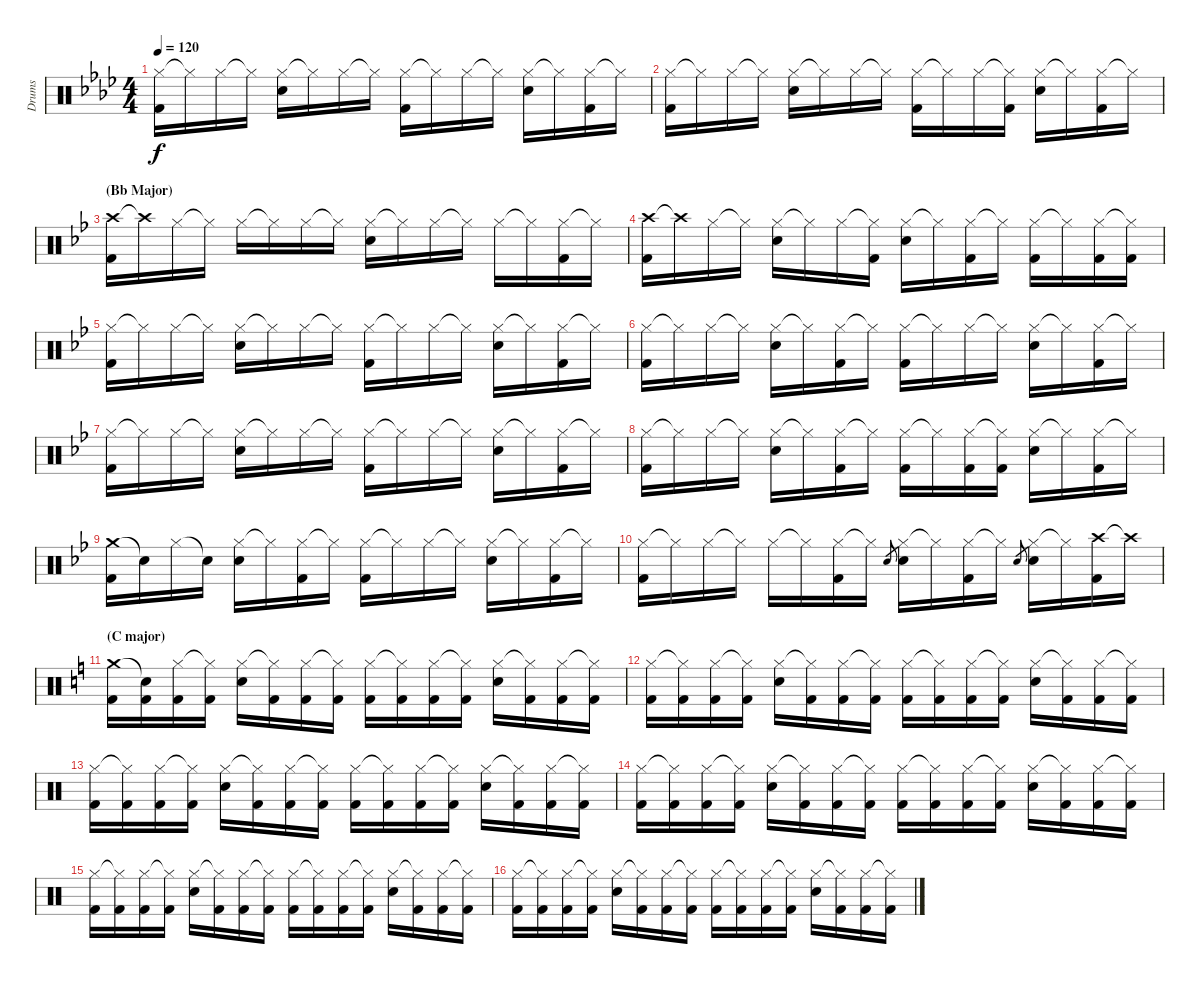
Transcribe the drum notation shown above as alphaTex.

\track ("Drums" "Drums") {instrument percussion}
\staff {score}
\articulation defaults
\ts (4 4)
\tempo 120
\clef neutral
\ks ab
("Hi-Hat (closed)" "Kick (hit) 2").16{dy f} "Hi-Hat (closed)"{t}.16 "Hi-Hat (closed)".16 "Hi-Hat (closed)"{t}.16 ("Hi-Hat (closed)" "Snare (hit) 2").16 "Hi-Hat (closed)"{t}.16 "Hi-Hat (closed)".16 "Hi-Hat (closed)"{t}.16 ("Hi-Hat (closed)" "Kick (hit) 2").16 "Hi-Hat (closed)"{t}.16 "Hi-Hat (closed)".16 "Hi-Hat (closed)"{t}.16 ("Hi-Hat (closed)" "Snare (hit) 2").16 "Hi-Hat (closed)"{t}.16 ("Hi-Hat (closed)" "Kick (hit) 2").16 "Hi-Hat (closed)"{t}.16 |
("Hi-Hat (closed)" "Kick (hit) 2").16 "Hi-Hat (closed)"{t}.16 "Hi-Hat (closed)".16 "Hi-Hat (closed)"{t}.16 ("Hi-Hat (closed)" "Snare (hit) 2").16 "Hi-Hat (closed)"{t}.16 "Hi-Hat (closed)".16 "Hi-Hat (closed)"{t}.16 ("Hi-Hat (closed)" "Kick (hit) 2").16 "Hi-Hat (closed)"{t}.16 "Hi-Hat (closed)".16 ("Hi-Hat (closed)"{t} "Kick (hit) 2").16 ("Hi-Hat (closed)" "Snare (hit) 2").16 "Hi-Hat (closed)"{t}.16 ("Hi-Hat (closed)" "Kick (hit) 2").16 "Hi-Hat (closed)"{t}.16 |
\section ("" "(Bb Major)")
\ks bb
("Crash high (hit)" "Kick (hit) 2").16 "Crash high (hit)"{t}.16 "Hi-Hat (closed)".16 "Hi-Hat (closed)"{t}.16 "Hi-Hat (closed)".16 "Hi-Hat (closed)"{t}.16 "Hi-Hat (closed)".16 "Hi-Hat (closed)"{t}.16 ("Hi-Hat (closed)" "Snare (hit) 2").16 "Hi-Hat (closed)"{t}.16 "Hi-Hat (closed)".16 "Hi-Hat (closed)"{t}.16 "Hi-Hat (closed)".16 "Hi-Hat (closed)"{t}.16 ("Hi-Hat (closed)" "Kick (hit) 2").16 "Hi-Hat (closed)"{t}.16 |
("Crash high (hit)" "Kick (hit) 2").16 "Crash high (hit)"{t}.16 "Hi-Hat (closed)".16 "Hi-Hat (closed)"{t}.16 ("Hi-Hat (closed)" "Snare (hit) 2").16 "Hi-Hat (closed)"{t}.16 "Hi-Hat (closed)".16 ("Hi-Hat (closed)"{t} "Kick (hit) 2").16 ("Hi-Hat (closed)" "Snare (hit) 2").16 "Hi-Hat (closed)"{t}.16 ("Hi-Hat (closed)" "Kick (hit) 2").16 "Hi-Hat (closed)"{t}.16 ("Hi-Hat (closed)" "Kick (hit) 2").16 "Hi-Hat (closed)"{t}.16 ("Hi-Hat (closed)" "Kick (hit) 2").16 ("Hi-Hat (closed)"{t} "Kick (hit) 2").16 |
("Hi-Hat (closed)" "Kick (hit) 2").16 "Hi-Hat (closed)"{t}.16 "Hi-Hat (closed)".16 "Hi-Hat (closed)"{t}.16 ("Hi-Hat (closed)" "Snare (hit) 2").16 "Hi-Hat (closed)"{t}.16 "Hi-Hat (closed)".16 "Hi-Hat (closed)"{t}.16 ("Hi-Hat (closed)" "Kick (hit) 2").16 "Hi-Hat (closed)"{t}.16 "Hi-Hat (closed)".16 "Hi-Hat (closed)"{t}.16 ("Hi-Hat (closed)" "Snare (hit) 2").16 "Hi-Hat (closed)"{t}.16 ("Hi-Hat (closed)" "Kick (hit) 2").16 "Hi-Hat (closed)"{t}.16 |
("Hi-Hat (closed)" "Kick (hit) 2").16 "Hi-Hat (closed)"{t}.16 "Hi-Hat (closed)".16 "Hi-Hat (closed)"{t}.16 ("Hi-Hat (closed)" "Snare (hit) 2").16 "Hi-Hat (closed)"{t}.16 ("Hi-Hat (closed)" "Kick (hit) 2").16 "Hi-Hat (closed)"{t}.16 ("Hi-Hat (closed)" "Kick (hit) 2").16 "Hi-Hat (closed)"{t}.16 "Hi-Hat (closed)".16 "Hi-Hat (closed)"{t}.16 ("Hi-Hat (closed)" "Snare (hit) 2").16 "Hi-Hat (closed)"{t}.16 ("Hi-Hat (closed)" "Kick (hit) 2").16 "Hi-Hat (closed)"{t}.16 |
("Hi-Hat (closed)" "Kick (hit) 2").16 "Hi-Hat (closed)"{t}.16 "Hi-Hat (closed)".16 "Hi-Hat (closed)"{t}.16 ("Hi-Hat (closed)" "Snare (hit) 2").16 "Hi-Hat (closed)"{t}.16 "Hi-Hat (closed)".16 "Hi-Hat (closed)"{t}.16 ("Hi-Hat (closed)" "Kick (hit) 2").16 "Hi-Hat (closed)"{t}.16 "Hi-Hat (closed)".16 "Hi-Hat (closed)"{t}.16 ("Hi-Hat (closed)" "Snare (hit) 2").16 "Hi-Hat (closed)"{t}.16 ("Hi-Hat (closed)" "Kick (hit) 2").16 "Hi-Hat (closed)"{t}.16 |
("Hi-Hat (closed)" "Kick (hit) 2").16 "Hi-Hat (closed)"{t}.16 "Hi-Hat (closed)".16 "Hi-Hat (closed)"{t}.16 ("Hi-Hat (closed)" "Snare (hit) 2").16 "Hi-Hat (closed)"{t}.16 ("Hi-Hat (closed)" "Kick (hit) 2").16 "Hi-Hat (closed)"{t}.16 ("Hi-Hat (closed)" "Kick (hit) 2").16 "Hi-Hat (closed)"{t}.16 ("Hi-Hat (closed)" "Kick (hit) 2").16 ("Hi-Hat (closed)"{t} "Kick (hit) 2").16 ("Hi-Hat (closed)" "Snare (hit) 2").16 "Hi-Hat (closed)"{t}.16 ("Hi-Hat (closed)" "Kick (hit) 2").16 "Hi-Hat (closed)"{t}.16 |
("Crash medium (hit)" "Kick (hit) 2").16 "Snare (hit)"{t}.16 "Hi-Hat (closed)".16 "Snare (hit)"{t}.16 ("Hi-Hat (closed)" "Snare (hit) 2").16 "Hi-Hat (closed)"{t}.16 ("Hi-Hat (closed)" "Kick (hit) 2").16 "Hi-Hat (closed)"{t}.16 ("Hi-Hat (closed)" "Kick (hit) 2").16 "Hi-Hat (closed)"{t}.16 "Hi-Hat (closed)".16 "Hi-Hat (closed)"{t}.16 ("Hi-Hat (closed)" "Snare (hit) 2").16 "Hi-Hat (closed)"{t}.16 ("Hi-Hat (closed)" "Kick (hit) 2").16 "Hi-Hat (closed)"{t}.16 |
("Hi-Hat (closed)" "Kick (hit) 2").16 "Hi-Hat (closed)"{t}.16 "Hi-Hat (closed)".16 "Hi-Hat (closed)"{t}.16 "Hi-Hat (closed)".16 "Hi-Hat (closed)"{t}.16 ("Hi-Hat (closed)" "Kick (hit) 2").16 "Hi-Hat (closed)"{t}.16 "Snare (hit) 2".8{gr} ("Hi-Hat (closed)" "Snare (hit) 2").16 "Hi-Hat (closed)"{t}.16 ("Hi-Hat (closed)" "Kick (hit) 2").16 "Hi-Hat (closed)"{t}.16 "Snare (hit) 2".8{gr} ("Hi-Hat (closed)" "Snare (hit) 2").16 "Hi-Hat (closed)"{t}.16 ("Crash high (hit)" "Kick (hit) 2").16 "Crash high (hit)"{t}.16 |
\section ("" "(C major)")
\ks c
("Crash medium (hit)" "Kick (hit) 2").16 ("Snare (hit)"{t} "Kick (hit) 2").16 ("Hi-Hat (closed)" "Kick (hit) 2").16 ("Hi-Hat (closed)"{t} "Kick (hit) 2").16 ("Hi-Hat (closed)" "Snare (hit) 2").16 ("Hi-Hat (closed)"{t} "Kick (hit) 2").16 ("Hi-Hat (closed)" "Kick (hit) 2").16 ("Hi-Hat (closed)"{t} "Kick (hit) 2").16 ("Hi-Hat (closed)" "Kick (hit) 2").16 ("Hi-Hat (closed)"{t} "Kick (hit) 2").16 ("Hi-Hat (closed)" "Kick (hit) 2").16 ("Hi-Hat (closed)"{t} "Kick (hit) 2").16 ("Hi-Hat (closed)" "Snare (hit) 2").16 ("Hi-Hat (closed)"{t} "Kick (hit) 2").16 ("Hi-Hat (closed)" "Kick (hit) 2").16 ("Hi-Hat (closed)"{t} "Kick (hit) 2").16 |
("Hi-Hat (closed)" "Kick (hit) 2").16 ("Hi-Hat (closed)"{t} "Kick (hit) 2").16 ("Hi-Hat (closed)" "Kick (hit) 2").16 ("Hi-Hat (closed)"{t} "Kick (hit) 2").16 ("Hi-Hat (closed)" "Snare (hit) 2").16 ("Hi-Hat (closed)"{t} "Kick (hit) 2").16 ("Hi-Hat (closed)" "Kick (hit) 2").16 ("Hi-Hat (closed)"{t} "Kick (hit) 2").16 ("Hi-Hat (closed)" "Kick (hit) 2").16 ("Hi-Hat (closed)"{t} "Kick (hit) 2").16 ("Hi-Hat (closed)" "Kick (hit) 2").16 ("Hi-Hat (closed)"{t} "Kick (hit) 2").16 ("Hi-Hat (closed)" "Snare (hit) 2").16 ("Hi-Hat (closed)"{t} "Kick (hit) 2").16 ("Hi-Hat (closed)" "Kick (hit) 2").16 ("Hi-Hat (closed)"{t} "Kick (hit) 2").16 |
("Hi-Hat (closed)" "Kick (hit) 2").16 ("Hi-Hat (closed)"{t} "Kick (hit) 2").16 ("Hi-Hat (closed)" "Kick (hit) 2").16 ("Hi-Hat (closed)"{t} "Kick (hit) 2").16 ("Hi-Hat (closed)" "Snare (hit) 2").16 ("Hi-Hat (closed)"{t} "Kick (hit) 2").16 ("Hi-Hat (closed)" "Kick (hit) 2").16 ("Hi-Hat (closed)"{t} "Kick (hit) 2").16 ("Hi-Hat (closed)" "Kick (hit) 2").16 ("Hi-Hat (closed)"{t} "Kick (hit) 2").16 ("Hi-Hat (closed)" "Kick (hit) 2").16 ("Hi-Hat (closed)"{t} "Kick (hit) 2").16 ("Hi-Hat (closed)" "Snare (hit) 2").16 ("Hi-Hat (closed)"{t} "Kick (hit) 2").16 ("Hi-Hat (closed)" "Kick (hit) 2").16 ("Hi-Hat (closed)"{t} "Kick (hit) 2").16 |
("Hi-Hat (closed)" "Kick (hit) 2").16 ("Hi-Hat (closed)"{t} "Kick (hit) 2").16 ("Hi-Hat (closed)" "Kick (hit) 2").16 ("Hi-Hat (closed)"{t} "Kick (hit) 2").16 ("Hi-Hat (closed)" "Snare (hit) 2").16 ("Hi-Hat (closed)"{t} "Kick (hit) 2").16 ("Hi-Hat (closed)" "Kick (hit) 2").16 ("Hi-Hat (closed)"{t} "Kick (hit) 2").16 ("Hi-Hat (closed)" "Kick (hit) 2").16 ("Hi-Hat (closed)"{t} "Kick (hit) 2").16 ("Hi-Hat (closed)" "Kick (hit) 2").16 ("Hi-Hat (closed)"{t} "Kick (hit) 2").16 ("Hi-Hat (closed)" "Snare (hit) 2").16 ("Hi-Hat (closed)"{t} "Kick (hit) 2").16 ("Hi-Hat (closed)" "Kick (hit) 2").16 ("Hi-Hat (closed)"{t} "Kick (hit) 2").16 |
("Hi-Hat (closed)" "Kick (hit) 2").16 ("Hi-Hat (closed)"{t} "Kick (hit) 2").16 ("Hi-Hat (closed)" "Kick (hit) 2").16 ("Hi-Hat (closed)"{t} "Kick (hit) 2").16 ("Hi-Hat (closed)" "Snare (hit) 2").16 ("Hi-Hat (closed)"{t} "Kick (hit) 2").16 ("Hi-Hat (closed)" "Kick (hit) 2").16 ("Hi-Hat (closed)"{t} "Kick (hit) 2").16 ("Hi-Hat (closed)" "Kick (hit) 2").16 ("Hi-Hat (closed)"{t} "Kick (hit) 2").16 ("Hi-Hat (closed)" "Kick (hit) 2").16 ("Hi-Hat (closed)"{t} "Kick (hit) 2").16 ("Hi-Hat (closed)" "Snare (hit) 2").16 ("Hi-Hat (closed)"{t} "Kick (hit) 2").16 ("Hi-Hat (closed)" "Kick (hit) 2").16 ("Hi-Hat (closed)"{t} "Kick (hit) 2").16 |
("Hi-Hat (closed)" "Kick (hit) 2").16 ("Hi-Hat (closed)"{t} "Kick (hit) 2").16 ("Hi-Hat (closed)" "Kick (hit) 2").16 ("Hi-Hat (closed)"{t} "Kick (hit) 2").16 ("Hi-Hat (closed)" "Snare (hit) 2").16 ("Hi-Hat (closed)"{t} "Kick (hit) 2").16 ("Hi-Hat (closed)" "Kick (hit) 2").16 ("Hi-Hat (closed)"{t} "Kick (hit) 2").16 ("Hi-Hat (closed)" "Kick (hit) 2").16 ("Hi-Hat (closed)"{t} "Kick (hit) 2").16 ("Hi-Hat (closed)" "Kick (hit) 2").16 ("Hi-Hat (closed)"{t} "Kick (hit) 2").16 ("Hi-Hat (closed)" "Snare (hit) 2").16 ("Hi-Hat (closed)"{t} "Kick (hit) 2").16 ("Hi-Hat (closed)" "Kick (hit) 2").16 ("Hi-Hat (closed)"{t} "Kick (hit) 2").16
